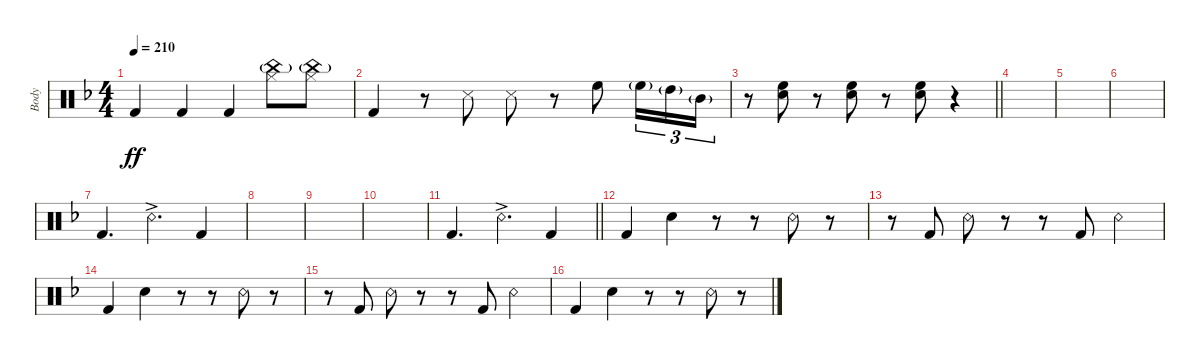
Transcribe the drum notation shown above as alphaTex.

\track ("Body" "Body") {instrument percussion}
\staff {score}
\articulation defaults
\ts (4 4)
\tempo 210
\clef neutral
\ks dminor "Kick (hit) 2".4{dy ff} "Kick (hit) 2".4 "Kick (hit) 2".4
("China (hit)"{g} "Hi-Hat (closed)").8 ("Hi-Hat (closed)" "China (hit)"{g}).8 |
"Kick (hit) 2".4 r.8 "Snare (side stick) 3".8 "Snare (side stick) 3".8 r.8 "High Floor Tom (hit)".8 "High Floor Tom (hit)"{g}.16{tu (3 2)} "High Tom (hit)"{g}.16{tu (3 2)} "Mid Tom (hit)"{g}.16{tu (3 2)} |
\barLineRight lightlight
r.8 ("Snare (hit) 2" "High Floor Tom (hit)").8 r.8 ("Snare (hit) 2" "High Floor Tom (hit)").8 r.8 ("Snare (hit) 2" "High Floor Tom (hit)").8 r.4 |
|
|
|
"Kick (hit) 2".4{d} "Snare (rim shot)"{ac}.4{d} "Kick (hit) 2".4 |
|
|
|
\barLineRight lightlight "Kick (hit) 2".4{d} "Snare (rim shot)"{ac}.4{d} "Kick (hit) 2".4
|
"Kick (hit) 2".4 "Snare (hit) 2".4 r.8 r.8 "Snare (rim shot)".8 r.8 |
r.8 "Kick (hit) 2".8 "Snare (rim shot)".8 r.8 r.8 "Kick (hit) 2".8 "Snare (rim shot)".4 |
"Kick (hit) 2".4 "Snare (hit) 2".4 r.8 r.8 "Snare (rim shot)".8 r.8 |
r.8 "Kick (hit) 2".8 "Snare (rim shot)".8 r.8 r.8 "Kick (hit) 2".8 "Snare (rim shot)".4 |
"Kick (hit) 2".4 "Snare (hit) 2".4 r.8 r.8 "Snare (rim shot)".8 r.8
